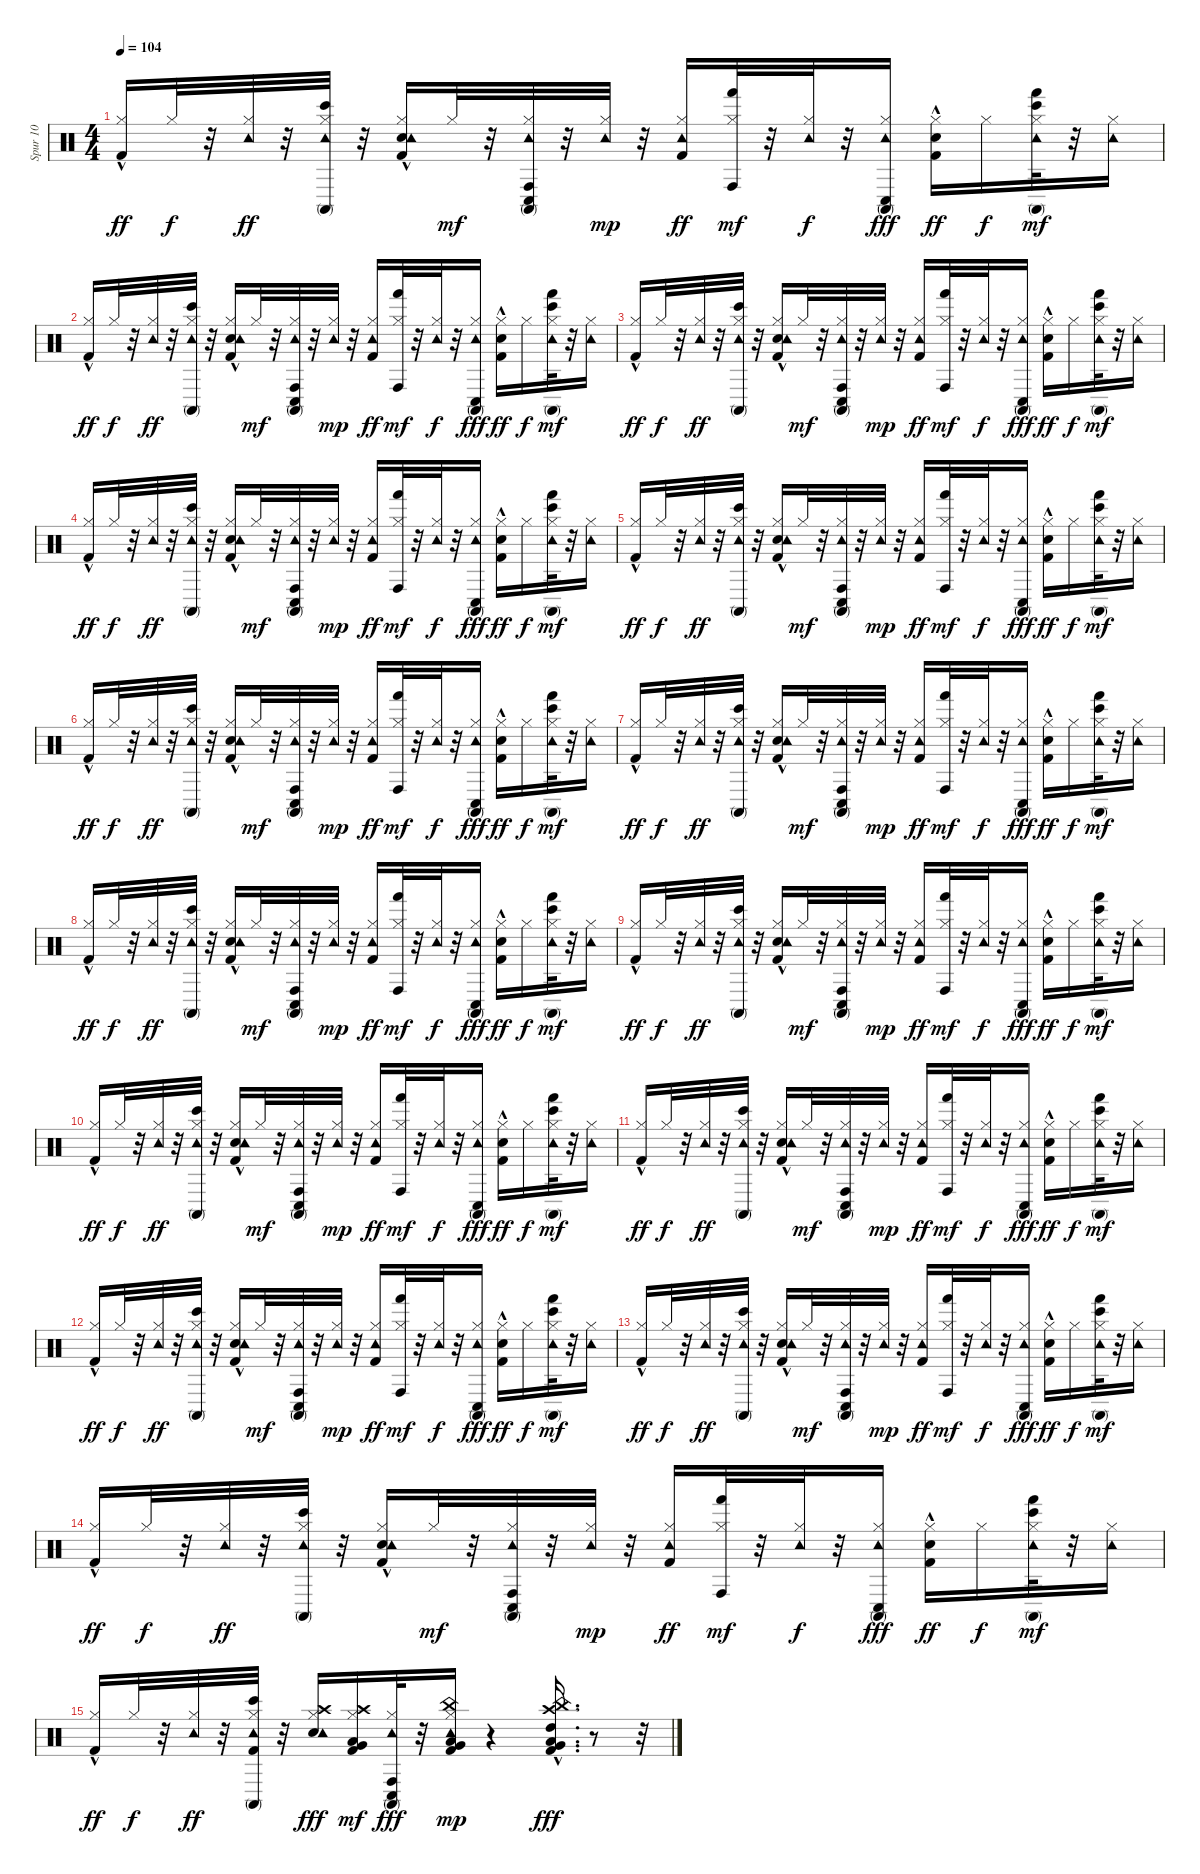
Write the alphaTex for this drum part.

\track ("Spur 10" "Spur 10") {instrument percussion}
\staff {score}
\articulation defaults
\ts (4 4)
\tempo 104
\clef neutral
\ks c
("Kick (hit) 2"{hac} "Hi-Hat (closed)").16{dy ff} "Hi-Hat (closed)".32{dy f} r.32 ("Tambourine (hit)" "Hi-Hat (closed)").32{dy ff} r.32 ("Bongo High (hit)" "Conga high (mute)" "Tambourine (hit)" "Hi-Hat (closed)").32 r.32 ("Electric Snare (hit)" "Kick (hit) 2"{hac} "Tambourine (hit)" "Hi-Hat (closed)").16 "Hi-Hat (closed)".32{dy mf} r.32 ("Conga high (hit)" "Conga low (hit)" "Conga high (mute)" "Tambourine (hit)" "Hi-Hat (closed)").32 r.32 ("Tambourine (hit)" "Hi-Hat (closed)").32{dy mp} r.32 ("Kick (hit) 2" "Tambourine (hit)" "Hi-Hat (closed)").16{dy ff} ("Hand (hit)" "Conga high (hit)" "Hi-Hat (closed)").32{dy mf} r.32 ("Tambourine (hit)" "Hi-Hat (closed)").32{dy f} r.32 ("Conga high (mute)" "Conga low (hit)" "Tambourine (hit)" "Hi-Hat (closed)").16{dy fff} ("Electric Snare (hit)"{hac} "Kick (hit) 2" "Hi-Hat (closed)").16{dy ff} "Hi-Hat (closed)".16{dy f} ("Hand (hit)" "Bongo High (hit)" "Conga high (mute)" "Tambourine (hit)" "Hi-Hat (closed)").32{dy mf} r.32 ("Tambourine (hit)" "Hi-Hat (closed)").16 |
("Kick (hit) 2"{hac} "Hi-Hat (closed)").16{dy ff} "Hi-Hat (closed)".32{dy f} r.32 ("Tambourine (hit)" "Hi-Hat (closed)").32{dy ff} r.32 ("Bongo High (hit)" "Conga high (mute)" "Tambourine (hit)" "Hi-Hat (closed)").32 r.32 ("Electric Snare (hit)" "Kick (hit) 2"{hac} "Tambourine (hit)" "Hi-Hat (closed)").16 "Hi-Hat (closed)".32{dy mf} r.32 ("Conga high (hit)" "Conga low (hit)" "Conga high (mute)" "Tambourine (hit)" "Hi-Hat (closed)").32 r.32 ("Tambourine (hit)" "Hi-Hat (closed)").32{dy mp} r.32 ("Kick (hit) 2" "Tambourine (hit)" "Hi-Hat (closed)").16{dy ff} ("Hand (hit)" "Conga high (hit)" "Hi-Hat (closed)").32{dy mf} r.32 ("Tambourine (hit)" "Hi-Hat (closed)").32{dy f} r.32 ("Conga high (mute)" "Conga low (hit)" "Tambourine (hit)" "Hi-Hat (closed)").16{dy fff} ("Electric Snare (hit)"{hac} "Kick (hit) 2" "Hi-Hat (closed)").16{dy ff} "Hi-Hat (closed)".16{dy f} ("Hand (hit)" "Bongo High (hit)" "Conga high (mute)" "Tambourine (hit)" "Hi-Hat (closed)").32{dy mf} r.32 ("Tambourine (hit)" "Hi-Hat (closed)").16 |
("Kick (hit) 2"{hac} "Hi-Hat (closed)").16{dy ff} "Hi-Hat (closed)".32{dy f} r.32 ("Tambourine (hit)" "Hi-Hat (closed)").32{dy ff} r.32 ("Bongo High (hit)" "Conga high (mute)" "Tambourine (hit)" "Hi-Hat (closed)").32 r.32 ("Electric Snare (hit)" "Kick (hit) 2"{hac} "Tambourine (hit)" "Hi-Hat (closed)").16 "Hi-Hat (closed)".32{dy mf} r.32 ("Conga high (hit)" "Conga low (hit)" "Conga high (mute)" "Tambourine (hit)" "Hi-Hat (closed)").32 r.32 ("Tambourine (hit)" "Hi-Hat (closed)").32{dy mp} r.32 ("Kick (hit) 2" "Tambourine (hit)" "Hi-Hat (closed)").16{dy ff} ("Hand (hit)" "Conga high (hit)" "Hi-Hat (closed)").32{dy mf} r.32 ("Tambourine (hit)" "Hi-Hat (closed)").32{dy f} r.32 ("Conga high (mute)" "Conga low (hit)" "Tambourine (hit)" "Hi-Hat (closed)").16{dy fff} ("Electric Snare (hit)"{hac} "Kick (hit) 2" "Hi-Hat (closed)").16{dy ff} "Hi-Hat (closed)".16{dy f} ("Hand (hit)" "Bongo High (hit)" "Conga high (mute)" "Tambourine (hit)" "Hi-Hat (closed)").32{dy mf} r.32 ("Tambourine (hit)" "Hi-Hat (closed)").16 |
("Kick (hit) 2"{hac} "Hi-Hat (closed)").16{dy ff} "Hi-Hat (closed)".32{dy f} r.32 ("Tambourine (hit)" "Hi-Hat (closed)").32{dy ff} r.32 ("Bongo High (hit)" "Conga high (mute)" "Tambourine (hit)" "Hi-Hat (closed)").32 r.32 ("Electric Snare (hit)" "Kick (hit) 2"{hac} "Tambourine (hit)" "Hi-Hat (closed)").16 "Hi-Hat (closed)".32{dy mf} r.32 ("Conga high (hit)" "Conga low (hit)" "Conga high (mute)" "Tambourine (hit)" "Hi-Hat (closed)").32 r.32 ("Tambourine (hit)" "Hi-Hat (closed)").32{dy mp} r.32 ("Kick (hit) 2" "Tambourine (hit)" "Hi-Hat (closed)").16{dy ff} ("Hand (hit)" "Conga high (hit)" "Hi-Hat (closed)").32{dy mf} r.32 ("Tambourine (hit)" "Hi-Hat (closed)").32{dy f} r.32 ("Conga high (mute)" "Conga low (hit)" "Tambourine (hit)" "Hi-Hat (closed)").16{dy fff} ("Electric Snare (hit)"{hac} "Kick (hit) 2" "Hi-Hat (closed)").16{dy ff} "Hi-Hat (closed)".16{dy f} ("Hand (hit)" "Bongo High (hit)" "Conga high (mute)" "Tambourine (hit)" "Hi-Hat (closed)").32{dy mf} r.32 ("Tambourine (hit)" "Hi-Hat (closed)").16 |
("Kick (hit) 2"{hac} "Hi-Hat (closed)").16{dy ff} "Hi-Hat (closed)".32{dy f} r.32 ("Tambourine (hit)" "Hi-Hat (closed)").32{dy ff} r.32 ("Bongo High (hit)" "Conga high (mute)" "Tambourine (hit)" "Hi-Hat (closed)").32 r.32 ("Electric Snare (hit)" "Kick (hit) 2"{hac} "Tambourine (hit)" "Hi-Hat (closed)").16 "Hi-Hat (closed)".32{dy mf} r.32 ("Conga high (hit)" "Conga low (hit)" "Conga high (mute)" "Tambourine (hit)" "Hi-Hat (closed)").32 r.32 ("Tambourine (hit)" "Hi-Hat (closed)").32{dy mp} r.32 ("Kick (hit) 2" "Tambourine (hit)" "Hi-Hat (closed)").16{dy ff} ("Hand (hit)" "Conga high (hit)" "Hi-Hat (closed)").32{dy mf} r.32 ("Tambourine (hit)" "Hi-Hat (closed)").32{dy f} r.32 ("Conga high (mute)" "Conga low (hit)" "Tambourine (hit)" "Hi-Hat (closed)").16{dy fff} ("Electric Snare (hit)"{hac} "Kick (hit) 2" "Hi-Hat (closed)").16{dy ff} "Hi-Hat (closed)".16{dy f} ("Hand (hit)" "Bongo High (hit)" "Conga high (mute)" "Tambourine (hit)" "Hi-Hat (closed)").32{dy mf} r.32 ("Tambourine (hit)" "Hi-Hat (closed)").16 |
("Kick (hit) 2"{hac} "Hi-Hat (closed)").16{dy ff} "Hi-Hat (closed)".32{dy f} r.32 ("Tambourine (hit)" "Hi-Hat (closed)").32{dy ff} r.32 ("Bongo High (hit)" "Conga high (mute)" "Tambourine (hit)" "Hi-Hat (closed)").32 r.32 ("Electric Snare (hit)" "Kick (hit) 2"{hac} "Tambourine (hit)" "Hi-Hat (closed)").16 "Hi-Hat (closed)".32{dy mf} r.32 ("Conga high (hit)" "Conga low (hit)" "Conga high (mute)" "Tambourine (hit)" "Hi-Hat (closed)").32 r.32 ("Tambourine (hit)" "Hi-Hat (closed)").32{dy mp} r.32 ("Kick (hit) 2" "Tambourine (hit)" "Hi-Hat (closed)").16{dy ff} ("Hand (hit)" "Conga high (hit)" "Hi-Hat (closed)").32{dy mf} r.32 ("Tambourine (hit)" "Hi-Hat (closed)").32{dy f} r.32 ("Conga high (mute)" "Conga low (hit)" "Tambourine (hit)" "Hi-Hat (closed)").16{dy fff} ("Electric Snare (hit)"{hac} "Kick (hit) 2" "Hi-Hat (closed)").16{dy ff} "Hi-Hat (closed)".16{dy f} ("Hand (hit)" "Bongo High (hit)" "Conga high (mute)" "Tambourine (hit)" "Hi-Hat (closed)").32{dy mf} r.32 ("Tambourine (hit)" "Hi-Hat (closed)").16 |
("Kick (hit) 2"{hac} "Hi-Hat (closed)").16{dy ff} "Hi-Hat (closed)".32{dy f} r.32 ("Tambourine (hit)" "Hi-Hat (closed)").32{dy ff} r.32 ("Bongo High (hit)" "Conga high (mute)" "Tambourine (hit)" "Hi-Hat (closed)").32 r.32 ("Electric Snare (hit)" "Kick (hit) 2"{hac} "Tambourine (hit)" "Hi-Hat (closed)").16 "Hi-Hat (closed)".32{dy mf} r.32 ("Conga high (hit)" "Conga low (hit)" "Conga high (mute)" "Tambourine (hit)" "Hi-Hat (closed)").32 r.32 ("Tambourine (hit)" "Hi-Hat (closed)").32{dy mp} r.32 ("Kick (hit) 2" "Tambourine (hit)" "Hi-Hat (closed)").16{dy ff} ("Hand (hit)" "Conga high (hit)" "Hi-Hat (closed)").32{dy mf} r.32 ("Tambourine (hit)" "Hi-Hat (closed)").32{dy f} r.32 ("Conga high (mute)" "Conga low (hit)" "Tambourine (hit)" "Hi-Hat (closed)").16{dy fff} ("Electric Snare (hit)"{hac} "Kick (hit) 2" "Hi-Hat (closed)").16{dy ff} "Hi-Hat (closed)".16{dy f} ("Hand (hit)" "Bongo High (hit)" "Conga high (mute)" "Tambourine (hit)" "Hi-Hat (closed)").32{dy mf} r.32 ("Tambourine (hit)" "Hi-Hat (closed)").16 |
("Kick (hit) 2"{hac} "Hi-Hat (closed)").16{dy ff} "Hi-Hat (closed)".32{dy f} r.32 ("Tambourine (hit)" "Hi-Hat (closed)").32{dy ff} r.32 ("Bongo High (hit)" "Conga high (mute)" "Tambourine (hit)" "Hi-Hat (closed)").32 r.32 ("Electric Snare (hit)" "Kick (hit) 2"{hac} "Tambourine (hit)" "Hi-Hat (closed)").16 "Hi-Hat (closed)".32{dy mf} r.32 ("Conga high (hit)" "Conga low (hit)" "Conga high (mute)" "Tambourine (hit)" "Hi-Hat (closed)").32 r.32 ("Tambourine (hit)" "Hi-Hat (closed)").32{dy mp} r.32 ("Kick (hit) 2" "Tambourine (hit)" "Hi-Hat (closed)").16{dy ff} ("Hand (hit)" "Conga high (hit)" "Hi-Hat (closed)").32{dy mf} r.32 ("Tambourine (hit)" "Hi-Hat (closed)").32{dy f} r.32 ("Conga high (mute)" "Conga low (hit)" "Tambourine (hit)" "Hi-Hat (closed)").16{dy fff} ("Electric Snare (hit)"{hac} "Kick (hit) 2" "Hi-Hat (closed)").16{dy ff} "Hi-Hat (closed)".16{dy f} ("Hand (hit)" "Bongo High (hit)" "Conga high (mute)" "Tambourine (hit)" "Hi-Hat (closed)").32{dy mf} r.32 ("Tambourine (hit)" "Hi-Hat (closed)").16 |
("Kick (hit) 2"{hac} "Hi-Hat (closed)").16{dy ff} "Hi-Hat (closed)".32{dy f} r.32 ("Tambourine (hit)" "Hi-Hat (closed)").32{dy ff} r.32 ("Bongo High (hit)" "Conga high (mute)" "Tambourine (hit)" "Hi-Hat (closed)").32 r.32 ("Electric Snare (hit)" "Kick (hit) 2"{hac} "Tambourine (hit)" "Hi-Hat (closed)").16 "Hi-Hat (closed)".32{dy mf} r.32 ("Conga high (hit)" "Conga low (hit)" "Conga high (mute)" "Tambourine (hit)" "Hi-Hat (closed)").32 r.32 ("Tambourine (hit)" "Hi-Hat (closed)").32{dy mp} r.32 ("Kick (hit) 2" "Tambourine (hit)" "Hi-Hat (closed)").16{dy ff} ("Hand (hit)" "Conga high (hit)" "Hi-Hat (closed)").32{dy mf} r.32 ("Tambourine (hit)" "Hi-Hat (closed)").32{dy f} r.32 ("Conga high (mute)" "Conga low (hit)" "Tambourine (hit)" "Hi-Hat (closed)").16{dy fff} ("Electric Snare (hit)"{hac} "Kick (hit) 2" "Hi-Hat (closed)").16{dy ff} "Hi-Hat (closed)".16{dy f} ("Hand (hit)" "Bongo High (hit)" "Conga high (mute)" "Tambourine (hit)" "Hi-Hat (closed)").32{dy mf} r.32 ("Tambourine (hit)" "Hi-Hat (closed)").16 |
("Kick (hit) 2"{hac} "Hi-Hat (closed)").16{dy ff} "Hi-Hat (closed)".32{dy f} r.32 ("Tambourine (hit)" "Hi-Hat (closed)").32{dy ff} r.32 ("Bongo High (hit)" "Conga high (mute)" "Tambourine (hit)" "Hi-Hat (closed)").32 r.32 ("Electric Snare (hit)" "Kick (hit) 2"{hac} "Tambourine (hit)" "Hi-Hat (closed)").16 "Hi-Hat (closed)".32{dy mf} r.32 ("Conga high (hit)" "Conga low (hit)" "Conga high (mute)" "Tambourine (hit)" "Hi-Hat (closed)").32 r.32 ("Tambourine (hit)" "Hi-Hat (closed)").32{dy mp} r.32 ("Kick (hit) 2" "Tambourine (hit)" "Hi-Hat (closed)").16{dy ff} ("Hand (hit)" "Conga high (hit)" "Hi-Hat (closed)").32{dy mf} r.32 ("Tambourine (hit)" "Hi-Hat (closed)").32{dy f} r.32 ("Conga high (mute)" "Conga low (hit)" "Tambourine (hit)" "Hi-Hat (closed)").16{dy fff} ("Electric Snare (hit)"{hac} "Kick (hit) 2" "Hi-Hat (closed)").16{dy ff} "Hi-Hat (closed)".16{dy f} ("Hand (hit)" "Bongo High (hit)" "Conga high (mute)" "Tambourine (hit)" "Hi-Hat (closed)").32{dy mf} r.32 ("Tambourine (hit)" "Hi-Hat (closed)").16 |
("Kick (hit) 2"{hac} "Hi-Hat (closed)").16{dy ff} "Hi-Hat (closed)".32{dy f} r.32 ("Tambourine (hit)" "Hi-Hat (closed)").32{dy ff} r.32 ("Bongo High (hit)" "Conga high (mute)" "Tambourine (hit)" "Hi-Hat (closed)").32 r.32 ("Electric Snare (hit)" "Kick (hit) 2"{hac} "Tambourine (hit)" "Hi-Hat (closed)").16 "Hi-Hat (closed)".32{dy mf} r.32 ("Conga high (hit)" "Conga low (hit)" "Conga high (mute)" "Tambourine (hit)" "Hi-Hat (closed)").32 r.32 ("Tambourine (hit)" "Hi-Hat (closed)").32{dy mp} r.32 ("Kick (hit) 2" "Tambourine (hit)" "Hi-Hat (closed)").16{dy ff} ("Hand (hit)" "Conga high (hit)" "Hi-Hat (closed)").32{dy mf} r.32 ("Tambourine (hit)" "Hi-Hat (closed)").32{dy f} r.32 ("Conga high (mute)" "Conga low (hit)" "Tambourine (hit)" "Hi-Hat (closed)").16{dy fff} ("Electric Snare (hit)"{hac} "Kick (hit) 2" "Hi-Hat (closed)").16{dy ff} "Hi-Hat (closed)".16{dy f} ("Hand (hit)" "Bongo High (hit)" "Conga high (mute)" "Tambourine (hit)" "Hi-Hat (closed)").32{dy mf} r.32 ("Tambourine (hit)" "Hi-Hat (closed)").16 |
("Kick (hit) 2"{hac} "Hi-Hat (closed)").16{dy ff} "Hi-Hat (closed)".32{dy f} r.32 ("Tambourine (hit)" "Hi-Hat (closed)").32{dy ff} r.32 ("Bongo High (hit)" "Conga high (mute)" "Tambourine (hit)" "Hi-Hat (closed)").32 r.32 ("Electric Snare (hit)" "Kick (hit) 2"{hac} "Tambourine (hit)" "Hi-Hat (closed)").16 "Hi-Hat (closed)".32{dy mf} r.32 ("Conga high (hit)" "Conga low (hit)" "Conga high (mute)" "Tambourine (hit)" "Hi-Hat (closed)").32 r.32 ("Tambourine (hit)" "Hi-Hat (closed)").32{dy mp} r.32 ("Kick (hit) 2" "Tambourine (hit)" "Hi-Hat (closed)").16{dy ff} ("Hand (hit)" "Conga high (hit)" "Hi-Hat (closed)").32{dy mf} r.32 ("Tambourine (hit)" "Hi-Hat (closed)").32{dy f} r.32 ("Conga high (mute)" "Conga low (hit)" "Tambourine (hit)" "Hi-Hat (closed)").16{dy fff} ("Electric Snare (hit)"{hac} "Kick (hit) 2" "Hi-Hat (closed)").16{dy ff} "Hi-Hat (closed)".16{dy f} ("Hand (hit)" "Bongo High (hit)" "Conga high (mute)" "Tambourine (hit)" "Hi-Hat (closed)").32{dy mf} r.32 ("Tambourine (hit)" "Hi-Hat (closed)").16 |
("Kick (hit) 2"{hac} "Hi-Hat (closed)").16{dy ff} "Hi-Hat (closed)".32{dy f} r.32 ("Tambourine (hit)" "Hi-Hat (closed)").32{dy ff} r.32 ("Bongo High (hit)" "Conga high (mute)" "Tambourine (hit)" "Hi-Hat (closed)").32 r.32 ("Electric Snare (hit)" "Kick (hit) 2"{hac} "Tambourine (hit)" "Hi-Hat (closed)").16 "Hi-Hat (closed)".32{dy mf} r.32 ("Conga high (hit)" "Conga low (hit)" "Conga high (mute)" "Tambourine (hit)" "Hi-Hat (closed)").32 r.32 ("Tambourine (hit)" "Hi-Hat (closed)").32{dy mp} r.32 ("Kick (hit) 2" "Tambourine (hit)" "Hi-Hat (closed)").16{dy ff} ("Hand (hit)" "Conga high (hit)" "Hi-Hat (closed)").32{dy mf} r.32 ("Tambourine (hit)" "Hi-Hat (closed)").32{dy f} r.32 ("Conga high (mute)" "Conga low (hit)" "Tambourine (hit)" "Hi-Hat (closed)").16{dy fff} ("Electric Snare (hit)"{hac} "Kick (hit) 2" "Hi-Hat (closed)").16{dy ff} "Hi-Hat (closed)".16{dy f} ("Hand (hit)" "Bongo High (hit)" "Conga high (mute)" "Tambourine (hit)" "Hi-Hat (closed)").32{dy mf} r.32 ("Tambourine (hit)" "Hi-Hat (closed)").16 |
("Kick (hit) 2"{hac} "Hi-Hat (closed)").16{dy ff} "Hi-Hat (closed)".32{dy f} r.32 ("Tambourine (hit)" "Hi-Hat (closed)").32{dy ff} r.32 ("Bongo High (hit)" "Conga high (mute)" "Tambourine (hit)" "Hi-Hat (closed)").32 r.32 ("Electric Snare (hit)" "Kick (hit) 2"{hac} "Tambourine (hit)" "Hi-Hat (closed)").16 "Hi-Hat (closed)".32{dy mf} r.32 ("Conga high (hit)" "Conga low (hit)" "Conga high (mute)" "Tambourine (hit)" "Hi-Hat (closed)").32 r.32 ("Tambourine (hit)" "Hi-Hat (closed)").32{dy mp} r.32 ("Kick (hit) 2" "Tambourine (hit)" "Hi-Hat (closed)").16{dy ff} ("Hand (hit)" "Conga high (hit)" "Hi-Hat (closed)").32{dy mf} r.32 ("Tambourine (hit)" "Hi-Hat (closed)").32{dy f} r.32 ("Conga high (mute)" "Conga low (hit)" "Tambourine (hit)" "Hi-Hat (closed)").16{dy fff} ("Electric Snare (hit)"{hac} "Kick (hit) 2" "Hi-Hat (closed)").16{dy ff} "Hi-Hat (closed)".16{dy f} ("Hand (hit)" "Bongo High (hit)" "Conga high (mute)" "Tambourine (hit)" "Hi-Hat (closed)").32{dy mf} r.32 ("Tambourine (hit)" "Hi-Hat (closed)").16 |
("Kick (hit) 2"{hac} "Hi-Hat (closed)").16{dy ff} "Hi-Hat (closed)".32{dy f} r.32 ("Tambourine (hit)" "Hi-Hat (closed)").32{dy ff} r.32 ("Kick (hit) 2" "Bongo High (hit)" "Conga high (mute)" "Tambourine (hit)" "Hi-Hat (closed)").32 r.32 ("Crash high (hit)" "Electric Snare (hit)" "Tambourine (hit)" "Hi-Hat (closed)").16{dy fff} ("Kick (hit) 2" "Low Tom (hit)" "Very Low Tom (hit)" "Crash high (hit)" "Hi-Hat (closed)").16{dy mf} ("Conga high (hit)" "Conga low (hit)" "Conga high (mute)" "Tambourine (hit)" "Hi-Hat (closed)").32{dy fff} r.32 ("Kick (hit) 2" "Very Low Tom (hit)" "Low Tom (hit)" "China (hit)" "Tambourine (hit)" "Hi-Hat (closed)").16{dy mp} r.4 ("China (hit)"{hac} "Crash high (hit)" "High Tom (hit)" "Very Low Tom (hit)" "Low Floor Tom (hit)" "Kick (hit) 2").16{d dy fff} r.8 r.32
